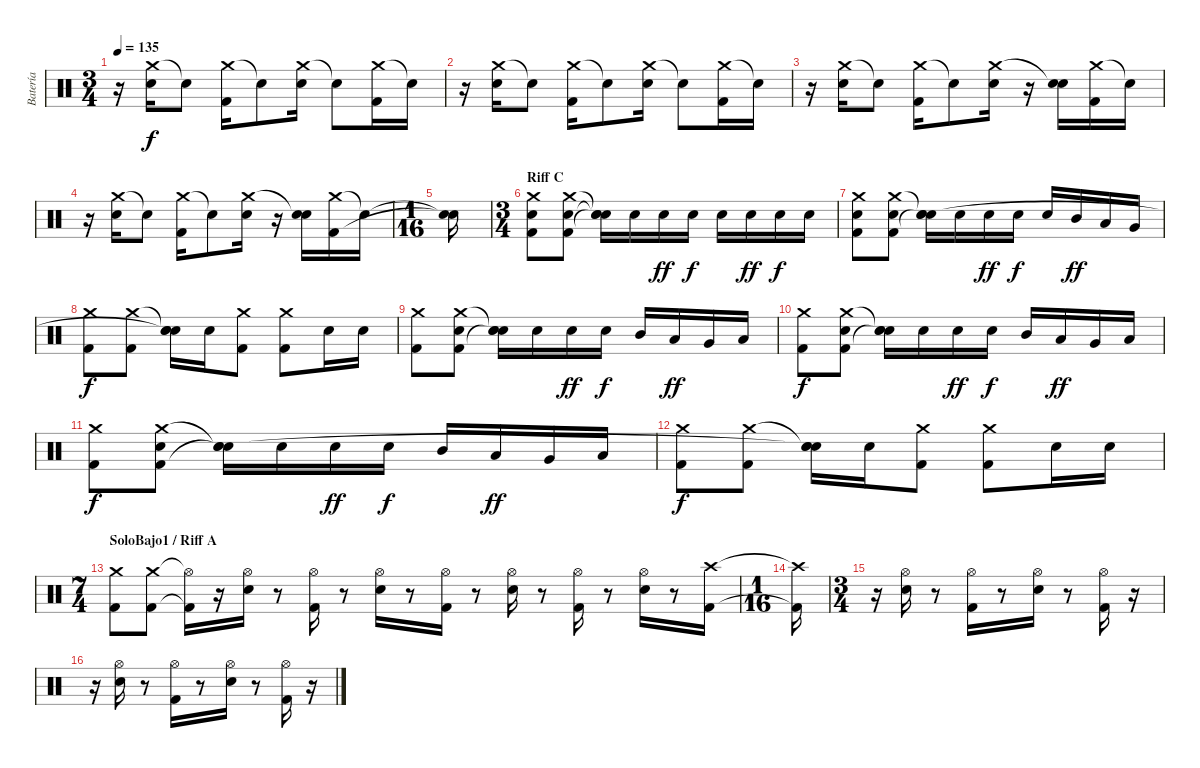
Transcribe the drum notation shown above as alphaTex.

\track ("Batería" "Batería") {instrument percussion}
\staff {score}
\articulation defaults
\ts (3 4)
\tempo 135
\clef neutral
\ks c
r.16{dy f} ("Crash medium (hit)" "Snare (hit) 2").16 "Snare (hit)"{t}.8 ("Crash medium (hit)" "Kick (hit) 2").16 "Snare (hit)"{t}.8 ("Crash medium (hit)" "Snare (hit) 2").16 "Snare (hit)"{t}.8 ("Crash medium (hit)" "Kick (hit) 2").16 "Snare (hit)"{t}.16 |
r.16 ("Crash medium (hit)" "Snare (hit) 2").16 "Snare (hit)"{t}.8 ("Crash medium (hit)" "Kick (hit) 2").16 "Snare (hit)"{t}.8 ("Crash medium (hit)" "Snare (hit) 2").16 "Snare (hit)"{t}.8 ("Crash medium (hit)" "Kick (hit) 2").16 "Snare (hit)"{t}.16 |
r.16 ("Crash medium (hit)" "Snare (hit) 2").16 "Snare (hit)"{t}.8 ("Crash medium (hit)" "Kick (hit) 2").16 "Snare (hit)"{t}.8 ("Crash medium (hit)" "Snare (hit) 2").16 r.16 ("Snare (hit)"{t} "Snare (hit) 2").16 ("Crash medium (hit)" "Kick (hit) 2").16 "Snare (hit)"{t}.16 |
r.16 ("Crash medium (hit)" "Snare (hit) 2").16 "Snare (hit)"{t}.8 ("Crash medium (hit)" "Kick (hit) 2").16 "Snare (hit)"{t}.8 ("Crash medium (hit)" "Snare (hit) 2").16 r.16 ("Snare (hit)"{t} "Snare (hit) 2").16 ("Crash medium (hit)" "Kick (hit) 2").16 "Snare (hit)"{t}.16 |
\ts (1 16)
("Snare (hit)"{t} "Snare (hit)"{t}).16 |
\ts (3 4)
\section ("" "Riff C")
("Crash medium (hit)" "Snare (hit) 2" "Kick (hit) 2").8 ("Crash medium (hit)" "Snare (hit) 2" "Kick (hit) 2").8 ("Snare (hit)"{t} "Snare (hit) 2"{t} "Snare (hit)"{t}).16 "Snare (hit) 2".16 "Snare (hit) 2".16{dy ff} "Snare (hit) 2".16{dy f} "Snare (hit) 2".16 "Snare (hit) 2".16{dy ff} "Snare (hit) 2".16{dy f} "Snare (hit) 2".16 |
("Crash medium (hit)" "Snare (hit) 2" "Kick (hit) 2").8 ("Crash medium (hit)" "Snare (hit) 2" "Kick (hit) 2").8 ("Snare (hit)"{t} "Snare (hit) 2" "Snare (hit)"{t}).16 "Snare (hit) 2".16 "Snare (hit) 2".16{dy ff} "Snare (hit) 2".16{dy f} "Snare (hit) 2".16 "Mid Tom (hit)".16{dy ff} "Low Tom (hit)".16 "Very Low Tom (hit)".16 |
("Crash medium (hit)" "Kick (hit) 2").8{dy f} ("Crash medium (hit)" "Kick (hit) 2").8 ("Snare (hit)"{t} "Snare (hit) 2" "Snare (hit)"{t}).16 "Snare (hit) 2".16 ("Crash medium (hit)" "Kick (hit) 2").8 ("Crash medium (hit)" "Kick (hit) 2").8 "Snare (hit) 2".16 "Snare (hit) 2".16 |
("Crash medium (hit)" "Kick (hit) 2").8 ("Crash medium (hit)" "Snare (hit) 2" "Kick (hit) 2").8 ("Snare (hit)"{t} "Snare (hit) 2" "Snare (hit)"{t}).16 "Snare (hit) 2".16 "Snare (hit) 2".16{dy ff} "Snare (hit) 2".16{dy f} "Mid Tom (hit)".16 "Low Tom (hit)".16{dy ff} "Very Low Tom (hit)".16 "Low Floor Tom (hit)".16 |
("Crash medium (hit)" "Kick (hit) 2").8{dy f} ("Crash medium (hit)" "Snare (hit) 2" "Kick (hit) 2").8 ("Snare (hit)"{t} "Snare (hit) 2" "Snare (hit)"{t}).16 "Snare (hit) 2".16 "Snare (hit) 2".16{dy ff} "Snare (hit) 2".16{dy f} "Mid Tom (hit)".16 "Low Tom (hit)".16{dy ff} "Very Low Tom (hit)".16 "Low Floor Tom (hit)".16 |
("Crash medium (hit)" "Kick (hit) 2").8{dy f} ("Crash medium (hit)" "Snare (hit) 2" "Kick (hit) 2").8 ("Snare (hit)"{t} "Snare (hit) 2" "Snare (hit)"{t}).16 "Snare (hit) 2".16 "Snare (hit) 2".16{dy ff} "Snare (hit) 2".16{dy f} "Mid Tom (hit)".16 "Low Tom (hit)".16{dy ff} "Very Low Tom (hit)".16 "Low Floor Tom (hit)".16 |
("Crash medium (hit)" "Kick (hit) 2").8{dy f} ("Crash medium (hit)" "Kick (hit) 2").8 ("Snare (hit)"{t} "Snare (hit) 2" "Snare (hit)"{t}).16 "Snare (hit) 2".16 ("Crash medium (hit)" "Kick (hit) 2").8 ("Crash medium (hit)" "Kick (hit) 2").8 "Snare (hit) 2".16 "Snare (hit) 2".16 |
\ts (7 4)
\section ("" "SoloBajo1 / Riff A")
("Crash medium (hit)" "Kick (hit) 2").8 ("Crash medium (hit)" "Kick (hit) 2").8 ("Hi-Hat (open)"{t} "Kick (hit) 2"{t}).16 r.16 ("Hi-Hat (open)" "Snare (hit) 2").16 r.8 ("Hi-Hat (open)" "Kick (hit) 2").16 r.8 ("Hi-Hat (open)" "Snare (hit) 2").16 r.8 ("Hi-Hat (open)" "Kick (hit) 2").16 r.8 ("Hi-Hat (open)" "Snare (hit) 2").16 r.8 ("Hi-Hat (open)" "Kick (hit) 2").16 r.8 ("Hi-Hat (open)" "Snare (hit) 2").16 r.8 ("Crash high (hit)" "Kick (hit) 2").16 |
\ts (1 16)
("Crash high (hit)"{t} "Kick (hit) 2"{t}).16 |
\ts (3 4)
r.16 ("Hi-Hat (open)" "Snare (hit) 2").16 r.8 ("Hi-Hat (open)" "Kick (hit) 2").16 r.8 ("Hi-Hat (open)" "Snare (hit) 2").16 r.8 ("Hi-Hat (open)" "Kick (hit) 2").16 r.16 |
r.16 ("Hi-Hat (open)" "Snare (hit) 2").16 r.8 ("Hi-Hat (open)" "Kick (hit) 2").16 r.8 ("Hi-Hat (open)" "Snare (hit) 2").16 r.8 ("Hi-Hat (open)" "Kick (hit) 2").16 r.16
